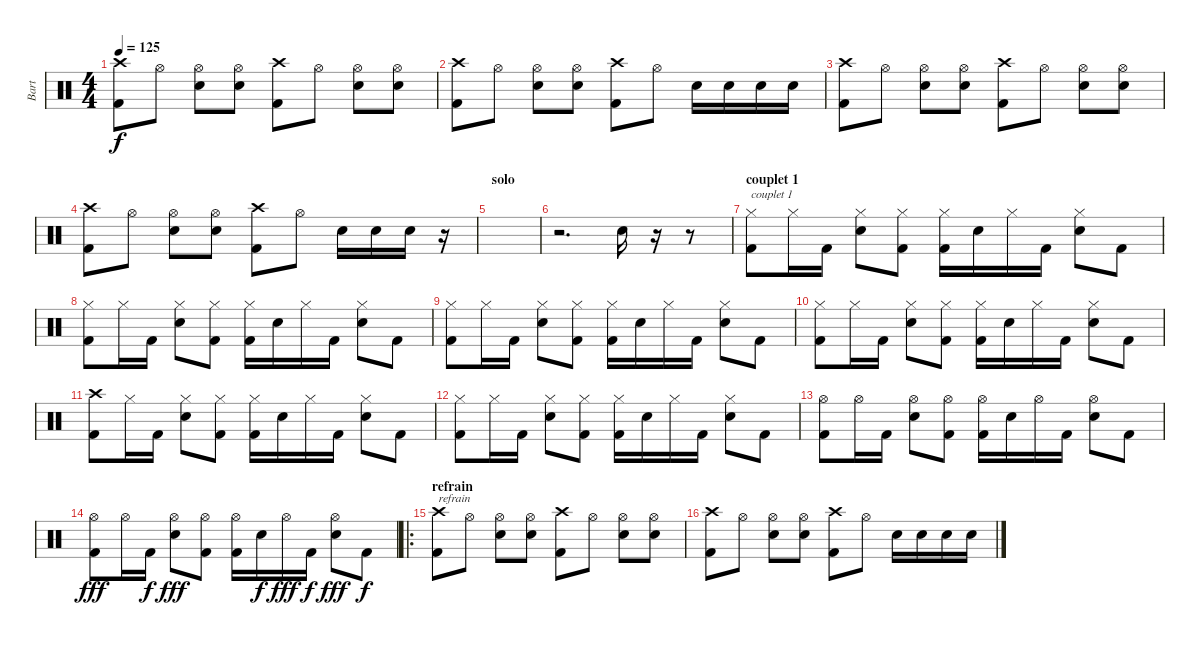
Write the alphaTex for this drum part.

\track ("Bart" "Bart") {instrument percussion}
\staff {score}
\articulation defaults
\ts (4 4)
\tempo 125
\clef neutral
\ks c
("Crash high (hit)" "Kick (hit) 2").8{dy f} "Hi-Hat (open)".8 ("Hi-Hat (open)" "Snare (hit) 2").8 ("Hi-Hat (open)" "Snare (hit) 2").8 ("Crash high (hit)" "Kick (hit) 2").8 "Hi-Hat (open)".8 ("Hi-Hat (open)" "Snare (hit) 2").8 ("Hi-Hat (open)" "Snare (hit) 2").8 |
("Crash high (hit)" "Kick (hit) 2").8 "Hi-Hat (open)".8 ("Hi-Hat (open)" "Snare (hit) 2").8 ("Hi-Hat (open)" "Snare (hit) 2").8 ("Crash high (hit)" "Kick (hit) 2").8 "Hi-Hat (open)".8 "Snare (hit) 2".16 "Snare (hit) 2".16 "Snare (hit) 2".16 "Snare (hit) 2".16 |
("Crash high (hit)" "Kick (hit) 2").8 "Hi-Hat (open)".8 ("Hi-Hat (open)" "Snare (hit) 2").8 ("Hi-Hat (open)" "Snare (hit) 2").8 ("Crash high (hit)" "Kick (hit) 2").8 "Hi-Hat (open)".8 ("Hi-Hat (open)" "Snare (hit) 2").8 ("Hi-Hat (open)" "Snare (hit) 2").8 |
("Crash high (hit)" "Kick (hit) 2").8 "Hi-Hat (open)".8 ("Hi-Hat (open)" "Snare (hit) 2").8 ("Hi-Hat (open)" "Snare (hit) 2").8 ("Crash high (hit)" "Kick (hit) 2").8 "Hi-Hat (open)".8 "Snare (hit) 2".16 "Snare (hit) 2".16 "Snare (hit) 2".16 r.16 |
\section ("" "solo ")
|
r.2{d} "Snare (hit) 2".16 r.16 r.8 |
\section ("" "couplet 1")
("Hi-Hat (closed)" "Kick (hit) 2").8{txt "couplet 1"} "Hi-Hat (closed)".16 "Kick (hit) 2".16 ("Hi-Hat (closed)" "Snare (hit) 2").8 ("Hi-Hat (closed)" "Kick (hit) 2").8 ("Hi-Hat (closed)" "Kick (hit) 2").16 "Snare (hit) 2".16 "Hi-Hat (closed)".16 "Kick (hit) 2".16 ("Hi-Hat (closed)" "Snare (hit) 2").8 "Kick (hit) 2".8 |
("Hi-Hat (closed)" "Kick (hit) 2").8 "Hi-Hat (closed)".16 "Kick (hit) 2".16 ("Hi-Hat (closed)" "Snare (hit) 2").8 ("Hi-Hat (closed)" "Kick (hit) 2").8 ("Hi-Hat (closed)" "Kick (hit) 2").16 "Snare (hit) 2".16 "Hi-Hat (closed)".16 "Kick (hit) 2".16 ("Hi-Hat (closed)" "Snare (hit) 2").8 "Kick (hit) 2".8 |
("Hi-Hat (closed)" "Kick (hit) 2").8 "Hi-Hat (closed)".16 "Kick (hit) 2".16 ("Hi-Hat (closed)" "Snare (hit) 2").8 ("Hi-Hat (closed)" "Kick (hit) 2").8 ("Hi-Hat (closed)" "Kick (hit) 2").16 "Snare (hit) 2".16 "Hi-Hat (closed)".16 "Kick (hit) 2".16 ("Hi-Hat (closed)" "Snare (hit) 2").8 "Kick (hit) 2".8 |
("Hi-Hat (closed)" "Kick (hit) 2").8 "Hi-Hat (closed)".16 "Kick (hit) 2".16 ("Hi-Hat (closed)" "Snare (hit) 2").8 ("Hi-Hat (closed)" "Kick (hit) 2").8 ("Hi-Hat (closed)" "Kick (hit) 2").16 "Snare (hit) 2".16 "Hi-Hat (closed)".16 "Kick (hit) 2".16 ("Hi-Hat (closed)" "Snare (hit) 2").8 "Kick (hit) 2".8 |
("Crash high (hit)" "Kick (hit) 2").8 "Hi-Hat (closed)".16 "Kick (hit) 2".16 ("Hi-Hat (closed)" "Snare (hit) 2").8 ("Hi-Hat (closed)" "Kick (hit) 2").8 ("Hi-Hat (closed)" "Kick (hit) 2").16 "Snare (hit) 2".16 "Hi-Hat (closed)".16 "Kick (hit) 2".16 ("Hi-Hat (closed)" "Snare (hit) 2").8 "Kick (hit) 2".8 |
("Hi-Hat (closed)" "Kick (hit) 2").8 "Hi-Hat (closed)".16 "Kick (hit) 2".16 ("Hi-Hat (closed)" "Snare (hit) 2").8 ("Hi-Hat (closed)" "Kick (hit) 2").8 ("Hi-Hat (closed)" "Kick (hit) 2").16 "Snare (hit) 2".16 "Hi-Hat (closed)".16 "Kick (hit) 2".16 ("Hi-Hat (closed)" "Snare (hit) 2").8 "Kick (hit) 2".8 |
("Hi-Hat (open)" "Kick (hit) 2").8 "Hi-Hat (open)".16 "Kick (hit) 2".16 ("Hi-Hat (open)" "Snare (hit) 2").8 ("Hi-Hat (open)" "Kick (hit) 2").8 ("Hi-Hat (open)" "Kick (hit) 2").16 "Snare (hit) 2".16 "Hi-Hat (open)".16 "Kick (hit) 2".16 ("Hi-Hat (open)" "Snare (hit) 2").8 "Kick (hit) 2".8 |
("Hi-Hat (open)" "Kick (hit) 2").8{dy fff} "Hi-Hat (open)".16 "Kick (hit) 2".16{dy f} ("Hi-Hat (open)" "Snare (hit) 2").8{dy fff} ("Hi-Hat (open)" "Kick (hit) 2").8 ("Hi-Hat (open)" "Kick (hit) 2").16 "Snare (hit) 2".16{dy f} "Hi-Hat (open)".16{dy fff} "Kick (hit) 2".16{dy f} ("Hi-Hat (open)" "Snare (hit) 2").8{dy fff} "Kick (hit) 2".8{dy f} |
\ro
\section ("" "refrain")
("Crash high (hit)" "Kick (hit) 2").8{txt "refrain"} "Hi-Hat (open)".8 ("Hi-Hat (open)" "Snare (hit) 2").8 ("Hi-Hat (open)" "Snare (hit) 2").8 ("Crash high (hit)" "Kick (hit) 2").8 "Hi-Hat (open)".8 ("Hi-Hat (open)" "Snare (hit) 2").8 ("Hi-Hat (open)" "Snare (hit) 2").8 |
("Crash high (hit)" "Kick (hit) 2").8 "Hi-Hat (open)".8 ("Hi-Hat (open)" "Snare (hit) 2").8 ("Hi-Hat (open)" "Snare (hit) 2").8 ("Crash high (hit)" "Kick (hit) 2").8 "Hi-Hat (open)".8 "Snare (hit) 2".16 "Snare (hit) 2".16 "Snare (hit) 2".16 "Snare (hit) 2".16
